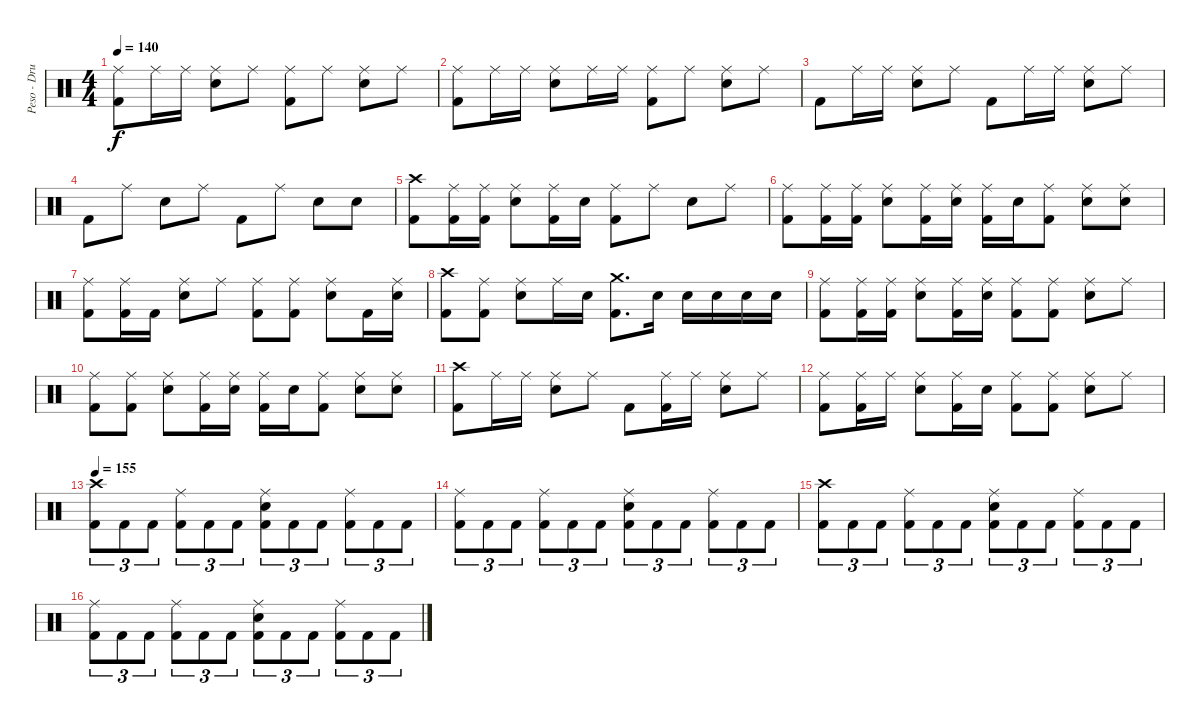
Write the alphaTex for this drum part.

\track ("Peso - Drums" "Peso - Dru") {instrument percussion}
\staff {score}
\articulation defaults
\ts (4 4)
\tempo 140
\clef neutral
\ks c
("Ride (middle)" "Kick (hit) 2").8{dy f} "Ride (middle)".16 "Ride (middle)".16 ("Ride (middle)" "Electric Snare (hit)").8 "Ride (middle)".8 ("Ride (middle)" "Kick (hit) 2").8 "Ride (middle)".8 ("Ride (middle)" "Electric Snare (hit)").8 "Ride (middle)".8 |
("Ride (middle)" "Kick (hit) 2").8 "Ride (middle)".16 "Ride (middle)".16 ("Ride (middle)" "Electric Snare (hit)").8 "Ride (middle)".16 "Ride (middle)".16 ("Ride (middle)" "Kick (hit) 2").8 "Ride (middle)".8 ("Ride (middle)" "Electric Snare (hit)").8 "Ride (middle)".8 |
"Kick (hit) 2".8 "Ride (middle)".16 "Ride (middle)".16 ("Ride (middle)" "Electric Snare (hit)").8 "Ride (middle)".8 "Kick (hit) 2".8 "Ride (middle)".16 "Ride (middle)".16 ("Ride (middle)" "Electric Snare (hit)").8 "Ride (middle)".8 |
"Kick (hit) 2".8 "Ride (middle)".8 "Electric Snare (hit)".8 "Ride (middle)".8 "Kick (hit) 2".8 "Ride (middle)".8 "Electric Snare (hit)".8 "Electric Snare (hit)".8 |
("Crash high (hit)" "Kick (hit) 2").8 ("Ride (middle)" "Kick (hit) 2").16 ("Ride (middle)" "Kick (hit) 2").16 ("Ride (middle)" "Electric Snare (hit)").8 ("Ride (middle)" "Kick (hit) 2").16 "Electric Snare (hit)".16 ("Ride (middle)" "Kick (hit) 2").8 "Ride (middle)".8 "Electric Snare (hit)".8 "Ride (middle)".8 |
("Ride (middle)" "Kick (hit) 2").8 ("Ride (middle)" "Kick (hit) 2").16 ("Ride (middle)" "Kick (hit) 2").16 ("Ride (middle)" "Electric Snare (hit)").8 ("Ride (middle)" "Kick (hit) 2").16 ("Ride (middle)" "Electric Snare (hit)").16 ("Ride (middle)" "Kick (hit) 2").16 "Electric Snare (hit)".16 ("Ride (middle)" "Kick (hit) 2").8 ("Ride (middle)" "Electric Snare (hit)").8 ("Ride (middle)" "Electric Snare (hit)").8 |
("Ride (middle)" "Kick (hit) 2").8 ("Ride (middle)" "Kick (hit) 2").16 "Kick (hit) 2".16 ("Ride (middle)" "Electric Snare (hit)").8 "Ride (middle)".8 ("Ride (middle)" "Kick (hit) 2").8 ("Ride (middle)" "Kick (hit) 2").8 ("Ride (middle)" "Electric Snare (hit)").8 "Kick (hit) 2".16 ("Ride (middle)" "Electric Snare (hit)").16 |
("Crash high (hit)" "Kick (hit) 2").8 ("Ride (middle)" "Kick (hit) 2").8 ("Ride (middle)" "Electric Snare (hit)").8 "Ride (middle)".16 "Electric Snare (hit)".16 ("Crash medium (hit)" "Kick (hit) 2").8{d} "Electric Snare (hit)".16 "Electric Snare (hit)".16 "Electric Snare (hit)".16 "Electric Snare (hit)".16 "Electric Snare (hit)".16 |
("Ride (middle)" "Kick (hit) 2").8 ("Ride (middle)" "Kick (hit) 2").16 ("Ride (middle)" "Kick (hit) 2").16 ("Ride (middle)" "Electric Snare (hit)").8 ("Ride (middle)" "Kick (hit) 2").16 ("Ride (middle)" "Electric Snare (hit)").16 ("Ride (middle)" "Kick (hit) 2").8 ("Ride (middle)" "Kick (hit) 2").8 ("Ride (middle)" "Electric Snare (hit)").8 "Ride (middle)".8 |
("Ride (middle)" "Kick (hit) 2").8 ("Ride (middle)" "Kick (hit) 2").8 ("Ride (middle)" "Electric Snare (hit)").8 ("Ride (middle)" "Kick (hit) 2").16 ("Ride (middle)" "Electric Snare (hit)").16 ("Ride (middle)" "Kick (hit) 2").16 "Electric Snare (hit)".16 ("Ride (middle)" "Kick (hit) 2").8 ("Ride (middle)" "Electric Snare (hit)").8 ("Ride (middle)" "Electric Snare (hit)").8 |
("Crash high (hit)" "Kick (hit) 2").8 "Ride (middle)".16 "Ride (middle)".16 ("Ride (middle)" "Electric Snare (hit)").8 "Ride (middle)".8 "Kick (hit) 2".8 ("Ride (middle)" "Kick (hit) 2").16 "Ride (middle)".16 ("Ride (middle)" "Electric Snare (hit)").8 "Ride (middle)".8 |
("Ride (middle)" "Kick (hit) 2").8 ("Ride (middle)" "Kick (hit) 2").16 "Ride (middle)".16 ("Ride (middle)" "Electric Snare (hit)").8 ("Ride (middle)" "Kick (hit) 2").16 "Electric Snare (hit)".16 ("Ride (middle)" "Kick (hit) 2").8 ("Ride (middle)" "Kick (hit) 2").8 ("Ride (middle)" "Electric Snare (hit)").8 "Ride (middle)".8 |
\tempo 155
("Crash high (hit)" "Kick (hit) 2").8{tu (3 2)} "Kick (hit) 2".8{tu (3 2)} "Kick (hit) 2".8{tu (3 2)} ("Ride (middle)" "Kick (hit) 2").8{tu (3 2)} "Kick (hit) 2".8{tu (3 2)} "Kick (hit) 2".8{tu (3 2)} ("Ride (middle)" "Electric Snare (hit)" "Kick (hit) 2").8{tu (3 2)} "Kick (hit) 2".8{tu (3 2)} "Kick (hit) 2".8{tu (3 2)} ("Ride (middle)" "Kick (hit) 2").8{tu (3 2)} "Kick (hit) 2".8{tu (3 2)} "Kick (hit) 2".8{tu (3 2)} |
("Ride (middle)" "Kick (hit) 2").8{tu (3 2)} "Kick (hit) 2".8{tu (3 2)} "Kick (hit) 2".8{tu (3 2)} ("Ride (middle)" "Kick (hit) 2").8{tu (3 2)} "Kick (hit) 2".8{tu (3 2)} "Kick (hit) 2".8{tu (3 2)} ("Ride (middle)" "Electric Snare (hit)" "Kick (hit) 2").8{tu (3 2)} "Kick (hit) 2".8{tu (3 2)} "Kick (hit) 2".8{tu (3 2)} ("Ride (middle)" "Kick (hit) 2").8{tu (3 2)} "Kick (hit) 2".8{tu (3 2)} "Kick (hit) 2".8{tu (3 2)} |
("Crash high (hit)" "Kick (hit) 2").8{tu (3 2)} "Kick (hit) 2".8{tu (3 2)} "Kick (hit) 2".8{tu (3 2)} ("Ride (middle)" "Kick (hit) 2").8{tu (3 2)} "Kick (hit) 2".8{tu (3 2)} "Kick (hit) 2".8{tu (3 2)} ("Ride (middle)" "Electric Snare (hit)" "Kick (hit) 2").8{tu (3 2)} "Kick (hit) 2".8{tu (3 2)} "Kick (hit) 2".8{tu (3 2)} ("Ride (middle)" "Kick (hit) 2").8{tu (3 2)} "Kick (hit) 2".8{tu (3 2)} "Kick (hit) 2".8{tu (3 2)} |
("Ride (middle)" "Kick (hit) 2").8{tu (3 2)} "Kick (hit) 2".8{tu (3 2)} "Kick (hit) 2".8{tu (3 2)} ("Ride (middle)" "Kick (hit) 2").8{tu (3 2)} "Kick (hit) 2".8{tu (3 2)} "Kick (hit) 2".8{tu (3 2)} ("Ride (middle)" "Electric Snare (hit)" "Kick (hit) 2").8{tu (3 2)} "Kick (hit) 2".8{tu (3 2)} "Kick (hit) 2".8{tu (3 2)} ("Ride (middle)" "Kick (hit) 2").8{tu (3 2)} "Kick (hit) 2".8{tu (3 2)} "Kick (hit) 2".8{tu (3 2)}
